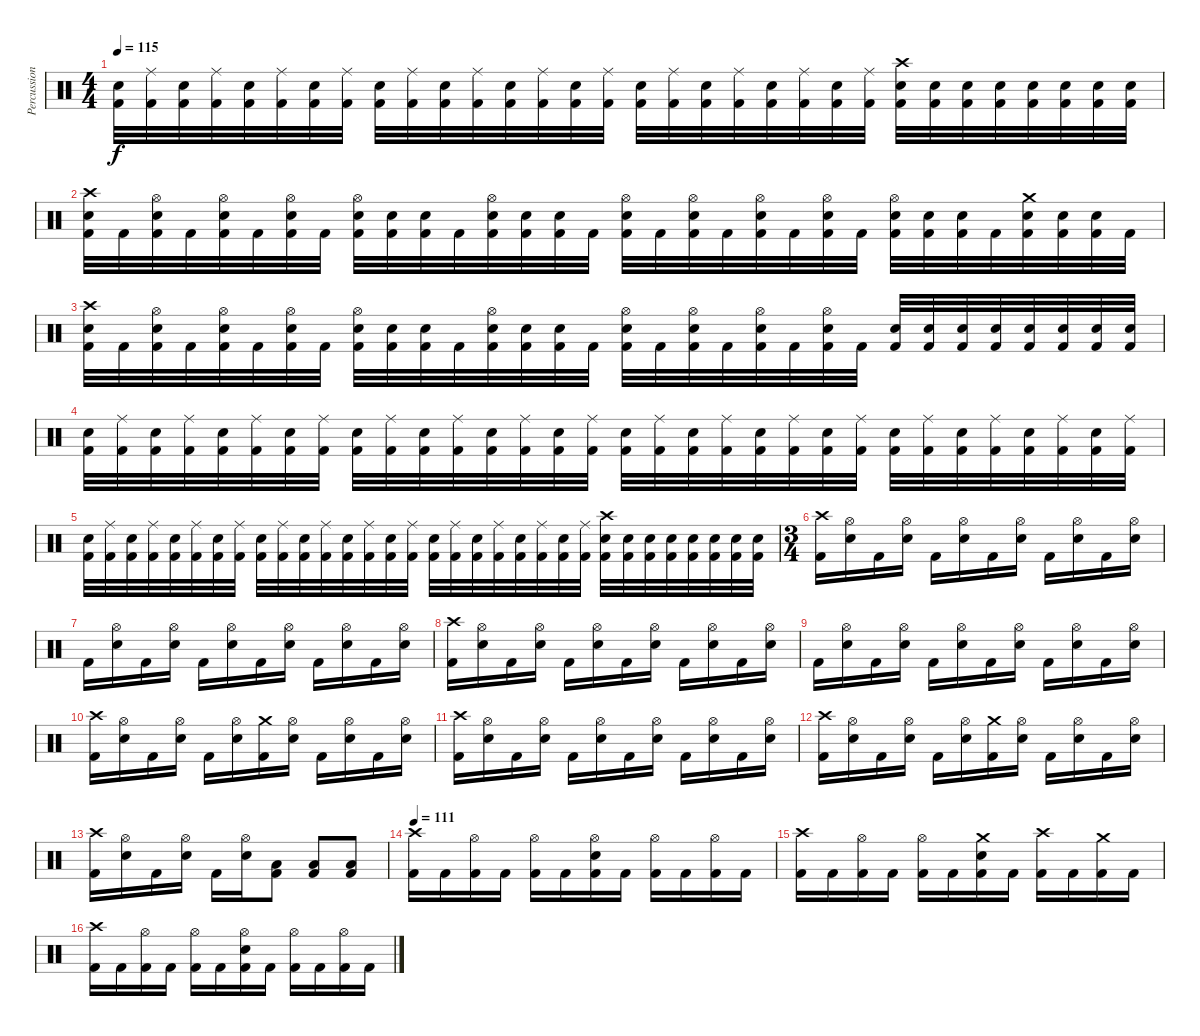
\track ("Percussion" "Percussion") {instrument percussion}
\staff {score}
\articulation defaults
\ts (4 4)
\tempo 115
\clef neutral
\ks c
("Electric Snare (hit)" "Kick (hit) 2").32{dy f} ("Ride (middle)" "Kick (hit) 2").32 ("Electric Snare (hit)" "Kick (hit) 2").32 ("Ride (middle)" "Kick (hit) 2").32 ("Electric Snare (hit)" "Kick (hit) 2").32 ("Ride (middle)" "Kick (hit) 2").32 ("Electric Snare (hit)" "Kick (hit) 2").32 ("Ride (middle)" "Kick (hit) 2").32 ("Electric Snare (hit)" "Kick (hit) 2").32 ("Ride (middle)" "Kick (hit) 2").32 ("Electric Snare (hit)" "Kick (hit) 2").32 ("Ride (middle)" "Kick (hit) 2").32 ("Electric Snare (hit)" "Kick (hit) 2").32 ("Ride (middle)" "Kick (hit) 2").32 ("Electric Snare (hit)" "Kick (hit) 2").32 ("Ride (middle)" "Kick (hit) 2").32 ("Electric Snare (hit)" "Kick (hit) 2").32 ("Ride (middle)" "Kick (hit) 2").32 ("Electric Snare (hit)" "Kick (hit) 2").32 ("Ride (middle)" "Kick (hit) 2").32 ("Electric Snare (hit)" "Kick (hit) 2").32 ("Ride (middle)" "Kick (hit) 2").32 ("Electric Snare (hit)" "Kick (hit) 2").32 ("Ride (middle)" "Kick (hit) 2").32 ("Crash high (hit)" "Electric Snare (hit)" "Kick (hit) 2").32 ("Electric Snare (hit)" "Kick (hit) 2").32 ("Electric Snare (hit)" "Kick (hit) 2").32 ("Electric Snare (hit)" "Kick (hit) 2").32 ("Electric Snare (hit)" "Kick (hit) 2").32 ("Electric Snare (hit)" "Kick (hit) 2").32 ("Electric Snare (hit)" "Kick (hit) 2").32 ("Electric Snare (hit)" "Kick (hit) 2").32 |
("Crash high (hit)" "Electric Snare (hit)" "Kick (hit) 2").32 "Kick (hit) 2".32 ("Hi-Hat (open)" "Electric Snare (hit)" "Kick (hit) 2").32 "Kick (hit) 2".32 ("Hi-Hat (open)" "Electric Snare (hit)" "Kick (hit) 2").32 "Kick (hit) 2".32 ("Hi-Hat (open)" "Electric Snare (hit)" "Kick (hit) 2").32 "Kick (hit) 2".32 ("Hi-Hat (open)" "Electric Snare (hit)" "Kick (hit) 2").32 ("Electric Snare (hit)" "Kick (hit) 2").32 ("Electric Snare (hit)" "Kick (hit) 2").32 "Kick (hit) 2".32 ("Hi-Hat (open)" "Electric Snare (hit)" "Kick (hit) 2").32 ("Electric Snare (hit)" "Kick (hit) 2").32 ("Electric Snare (hit)" "Kick (hit) 2").32 "Kick (hit) 2".32 ("Hi-Hat (open)" "Electric Snare (hit)" "Kick (hit) 2").32 "Kick (hit) 2".32 ("Hi-Hat (open)" "Electric Snare (hit)" "Kick (hit) 2").32 "Kick (hit) 2".32 ("Hi-Hat (open)" "Electric Snare (hit)" "Kick (hit) 2").32 "Kick (hit) 2".32 ("Hi-Hat (open)" "Electric Snare (hit)" "Kick (hit) 2").32 "Kick (hit) 2".32 ("Hi-Hat (open)" "Electric Snare (hit)" "Kick (hit) 2").32 ("Electric Snare (hit)" "Kick (hit) 2").32 ("Electric Snare (hit)" "Kick (hit) 2").32 "Kick (hit) 2".32 ("Crash medium (hit)" "Electric Snare (hit)" "Kick (hit) 2").32 ("Electric Snare (hit)" "Kick (hit) 2").32 ("Electric Snare (hit)" "Kick (hit) 2").32 "Kick (hit) 2".32 |
("Crash high (hit)" "Electric Snare (hit)" "Kick (hit) 2").32 "Kick (hit) 2".32 ("Hi-Hat (open)" "Electric Snare (hit)" "Kick (hit) 2").32 "Kick (hit) 2".32 ("Hi-Hat (open)" "Electric Snare (hit)" "Kick (hit) 2").32 "Kick (hit) 2".32 ("Hi-Hat (open)" "Electric Snare (hit)" "Kick (hit) 2").32 "Kick (hit) 2".32 ("Hi-Hat (open)" "Electric Snare (hit)" "Kick (hit) 2").32 ("Electric Snare (hit)" "Kick (hit) 2").32 ("Electric Snare (hit)" "Kick (hit) 2").32 "Kick (hit) 2".32 ("Hi-Hat (open)" "Electric Snare (hit)" "Kick (hit) 2").32 ("Electric Snare (hit)" "Kick (hit) 2").32 ("Electric Snare (hit)" "Kick (hit) 2").32 "Kick (hit) 2".32 ("Hi-Hat (open)" "Electric Snare (hit)" "Kick (hit) 2").32 "Kick (hit) 2".32 ("Hi-Hat (open)" "Electric Snare (hit)" "Kick (hit) 2").32 "Kick (hit) 2".32 ("Hi-Hat (open)" "Electric Snare (hit)" "Kick (hit) 2").32 "Kick (hit) 2".32 ("Hi-Hat (open)" "Electric Snare (hit)" "Kick (hit) 2").32 "Kick (hit) 2".32 ("Electric Snare (hit)" "Kick (hit) 2").32 ("Electric Snare (hit)" "Kick (hit) 2").32 ("Electric Snare (hit)" "Kick (hit) 2").32 ("Electric Snare (hit)" "Kick (hit) 2").32 ("Electric Snare (hit)" "Kick (hit) 2").32 ("Electric Snare (hit)" "Kick (hit) 2").32 ("Electric Snare (hit)" "Kick (hit) 2").32 ("Electric Snare (hit)" "Kick (hit) 2").32 |
("Electric Snare (hit)" "Kick (hit) 2").32 ("Ride (middle)" "Kick (hit) 2").32 ("Electric Snare (hit)" "Kick (hit) 2").32 ("Ride (middle)" "Kick (hit) 2").32 ("Electric Snare (hit)" "Kick (hit) 2").32 ("Ride (middle)" "Kick (hit) 2").32 ("Electric Snare (hit)" "Kick (hit) 2").32 ("Ride (middle)" "Kick (hit) 2").32 ("Electric Snare (hit)" "Kick (hit) 2").32 ("Ride (middle)" "Kick (hit) 2").32 ("Electric Snare (hit)" "Kick (hit) 2").32 ("Ride (middle)" "Kick (hit) 2").32 ("Electric Snare (hit)" "Kick (hit) 2").32 ("Ride (middle)" "Kick (hit) 2").32 ("Electric Snare (hit)" "Kick (hit) 2").32 ("Ride (middle)" "Kick (hit) 2").32 ("Electric Snare (hit)" "Kick (hit) 2").32 ("Ride (middle)" "Kick (hit) 2").32 ("Electric Snare (hit)" "Kick (hit) 2").32 ("Ride (middle)" "Kick (hit) 2").32 ("Electric Snare (hit)" "Kick (hit) 2").32 ("Ride (middle)" "Kick (hit) 2").32 ("Electric Snare (hit)" "Kick (hit) 2").32 ("Ride (middle)" "Kick (hit) 2").32 ("Electric Snare (hit)" "Kick (hit) 2").32 ("Ride (middle)" "Kick (hit) 2").32 ("Electric Snare (hit)" "Kick (hit) 2").32 ("Ride (middle)" "Kick (hit) 2").32 ("Electric Snare (hit)" "Kick (hit) 2").32 ("Ride (middle)" "Kick (hit) 2").32 ("Electric Snare (hit)" "Kick (hit) 2").32 ("Ride (middle)" "Kick (hit) 2").32 |
("Electric Snare (hit)" "Kick (hit) 2").32 ("Ride (middle)" "Kick (hit) 2").32 ("Electric Snare (hit)" "Kick (hit) 2").32 ("Ride (middle)" "Kick (hit) 2").32 ("Electric Snare (hit)" "Kick (hit) 2").32 ("Ride (middle)" "Kick (hit) 2").32 ("Electric Snare (hit)" "Kick (hit) 2").32 ("Ride (middle)" "Kick (hit) 2").32 ("Electric Snare (hit)" "Kick (hit) 2").32 ("Ride (middle)" "Kick (hit) 2").32 ("Electric Snare (hit)" "Kick (hit) 2").32 ("Ride (middle)" "Kick (hit) 2").32 ("Electric Snare (hit)" "Kick (hit) 2").32 ("Ride (middle)" "Kick (hit) 2").32 ("Electric Snare (hit)" "Kick (hit) 2").32 ("Ride (middle)" "Kick (hit) 2").32 ("Electric Snare (hit)" "Kick (hit) 2").32 ("Ride (middle)" "Kick (hit) 2").32 ("Electric Snare (hit)" "Kick (hit) 2").32 ("Ride (middle)" "Kick (hit) 2").32 ("Electric Snare (hit)" "Kick (hit) 2").32 ("Ride (middle)" "Kick (hit) 2").32 ("Electric Snare (hit)" "Kick (hit) 2").32 ("Ride (middle)" "Kick (hit) 2").32 ("Crash high (hit)" "Electric Snare (hit)" "Kick (hit) 2").32 ("Electric Snare (hit)" "Kick (hit) 2").32 ("Electric Snare (hit)" "Kick (hit) 2").32 ("Electric Snare (hit)" "Kick (hit) 2").32 ("Electric Snare (hit)" "Kick (hit) 2").32 ("Electric Snare (hit)" "Kick (hit) 2").32 ("Electric Snare (hit)" "Kick (hit) 2").32 ("Electric Snare (hit)" "Kick (hit) 2").32 |
\ts (3 4)
("Crash high (hit)" "Kick (hit) 2").16 ("Hi-Hat (open)" "Electric Snare (hit)").16 "Kick (hit) 2".16 ("Hi-Hat (open)" "Electric Snare (hit)").16 "Kick (hit) 2".16 ("Hi-Hat (open)" "Electric Snare (hit)").16 "Kick (hit) 2".16 ("Hi-Hat (open)" "Electric Snare (hit)").16 "Kick (hit) 2".16 ("Hi-Hat (open)" "Electric Snare (hit)").16 "Kick (hit) 2".16 ("Hi-Hat (open)" "Electric Snare (hit)").16 |
"Kick (hit) 2".16 ("Hi-Hat (open)" "Electric Snare (hit)").16 "Kick (hit) 2".16 ("Hi-Hat (open)" "Electric Snare (hit)").16 "Kick (hit) 2".16 ("Hi-Hat (open)" "Electric Snare (hit)").16 "Kick (hit) 2".16 ("Hi-Hat (open)" "Electric Snare (hit)").16 "Kick (hit) 2".16 ("Hi-Hat (open)" "Electric Snare (hit)").16 "Kick (hit) 2".16 ("Hi-Hat (open)" "Electric Snare (hit)").16 |
("Crash high (hit)" "Kick (hit) 2").16 ("Hi-Hat (open)" "Electric Snare (hit)").16 "Kick (hit) 2".16 ("Hi-Hat (open)" "Electric Snare (hit)").16 "Kick (hit) 2".16 ("Hi-Hat (open)" "Electric Snare (hit)").16 "Kick (hit) 2".16 ("Hi-Hat (open)" "Electric Snare (hit)").16 "Kick (hit) 2".16 ("Hi-Hat (open)" "Electric Snare (hit)").16 "Kick (hit) 2".16 ("Hi-Hat (open)" "Electric Snare (hit)").16 |
"Kick (hit) 2".16 ("Hi-Hat (open)" "Electric Snare (hit)").16 "Kick (hit) 2".16 ("Hi-Hat (open)" "Electric Snare (hit)").16 "Kick (hit) 2".16 ("Hi-Hat (open)" "Electric Snare (hit)").16 "Kick (hit) 2".16 ("Hi-Hat (open)" "Electric Snare (hit)").16 "Kick (hit) 2".16 ("Hi-Hat (open)" "Electric Snare (hit)").16 "Kick (hit) 2".16 ("Hi-Hat (open)" "Electric Snare (hit)").16 |
("Crash high (hit)" "Kick (hit) 2").16 ("Hi-Hat (open)" "Electric Snare (hit)").16 "Kick (hit) 2".16 ("Hi-Hat (open)" "Electric Snare (hit)").16 "Kick (hit) 2".16 ("Hi-Hat (open)" "Electric Snare (hit)").16 ("Crash medium (hit)" "Kick (hit) 2").16 ("Hi-Hat (open)" "Electric Snare (hit)").16 "Kick (hit) 2".16 ("Hi-Hat (open)" "Electric Snare (hit)").16 "Kick (hit) 2".16 ("Hi-Hat (open)" "Electric Snare (hit)").16 |
("Crash high (hit)" "Kick (hit) 2").16 ("Hi-Hat (open)" "Electric Snare (hit)").16 "Kick (hit) 2".16 ("Hi-Hat (open)" "Electric Snare (hit)").16 "Kick (hit) 2".16 ("Hi-Hat (open)" "Electric Snare (hit)").16 "Kick (hit) 2".16 ("Hi-Hat (open)" "Electric Snare (hit)").16 "Kick (hit) 2".16 ("Hi-Hat (open)" "Electric Snare (hit)").16 "Kick (hit) 2".16 ("Hi-Hat (open)" "Electric Snare (hit)").16 |
("Crash high (hit)" "Kick (hit) 2").16 ("Hi-Hat (open)" "Electric Snare (hit)").16 "Kick (hit) 2".16 ("Hi-Hat (open)" "Electric Snare (hit)").16 "Kick (hit) 2".16 ("Hi-Hat (open)" "Electric Snare (hit)").16 ("Crash medium (hit)" "Kick (hit) 2").16 ("Hi-Hat (open)" "Electric Snare (hit)").16 "Kick (hit) 2".16 ("Hi-Hat (open)" "Electric Snare (hit)").16 "Kick (hit) 2".16 ("Hi-Hat (open)" "Electric Snare (hit)").16 |
("Crash high (hit)" "Kick (hit) 2").16 ("Hi-Hat (open)" "Electric Snare (hit)").16 "Kick (hit) 2".16 ("Hi-Hat (open)" "Electric Snare (hit)").16 "Kick (hit) 2".16 ("Hi-Hat (open)" "Electric Snare (hit)").16 ("Low Tom (hit)" "Kick (hit) 2").8 ("Low Tom (hit)" "Kick (hit) 2").8 ("Low Tom (hit)" "Kick (hit) 2").8 |
\tempo 111
("Crash high (hit)" "Kick (hit) 2").16 "Kick (hit) 2".16 ("Hi-Hat (open)" "Kick (hit) 2").16 "Kick (hit) 2".16 ("Hi-Hat (open)" "Kick (hit) 2").16 "Kick (hit) 2".16 ("Hi-Hat (open)" "Electric Snare (hit)" "Kick (hit) 2").16 "Kick (hit) 2".16 ("Hi-Hat (open)" "Kick (hit) 2").16 "Kick (hit) 2".16 ("Hi-Hat (open)" "Kick (hit) 2").16 "Kick (hit) 2".16 |
("Crash high (hit)" "Kick (hit) 2").16 "Kick (hit) 2".16 ("Hi-Hat (open)" "Kick (hit) 2").16 "Kick (hit) 2".16 ("Hi-Hat (open)" "Kick (hit) 2").16 "Kick (hit) 2".16 ("Crash medium (hit)" "Electric Snare (hit)" "Kick (hit) 2").16 "Kick (hit) 2".16 ("Crash high (hit)" "Kick (hit) 2").16 "Kick (hit) 2".16 ("Crash medium (hit)" "Kick (hit) 2").16 "Kick (hit) 2".16 |
("Crash high (hit)" "Kick (hit) 2").16 "Kick (hit) 2".16 ("Hi-Hat (open)" "Kick (hit) 2").16 "Kick (hit) 2".16 ("Hi-Hat (open)" "Kick (hit) 2").16 "Kick (hit) 2".16 ("Hi-Hat (open)" "Electric Snare (hit)" "Kick (hit) 2").16 "Kick (hit) 2".16 ("Hi-Hat (open)" "Kick (hit) 2").16 "Kick (hit) 2".16 ("Hi-Hat (open)" "Kick (hit) 2").16 "Kick (hit) 2".16
